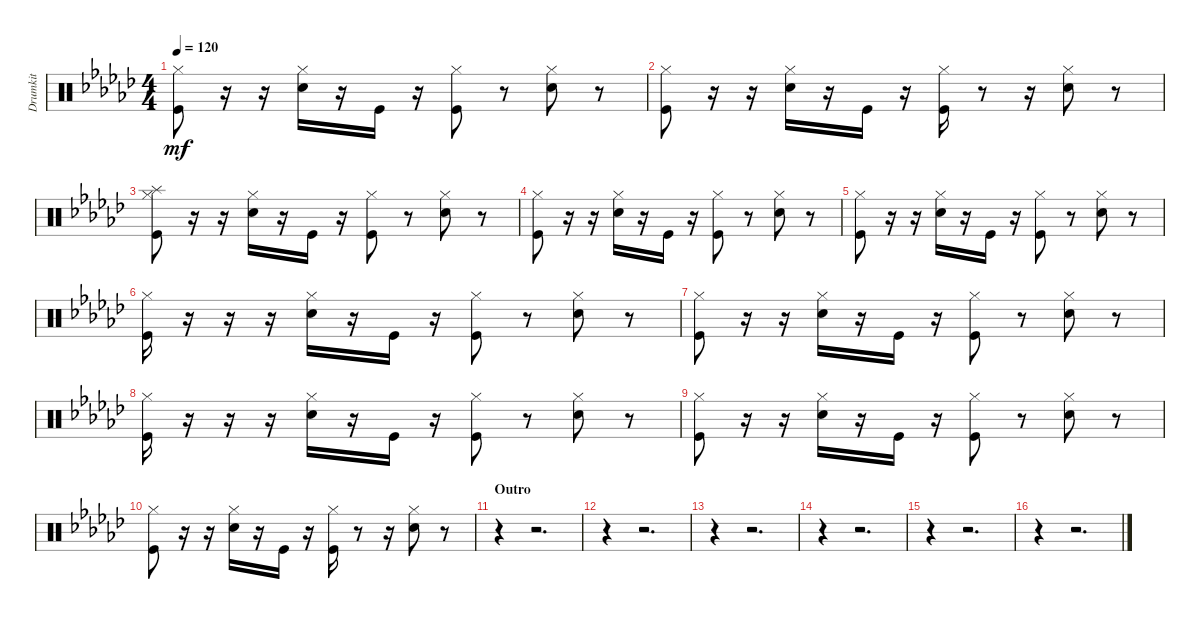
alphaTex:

\track ("Drumkit" "Drumkit") {instrument percussion}
\staff {score}
\articulation defaults
\ts (4 4)
\tempo 120
\clef neutral
\ks ebminor
("Kick (hit)" "Hi-Hat (closed)").8{dy mf} r.16 r.16 ("Snare (hit) 2" "Hi-Hat (closed)").16 r.16 "Kick (hit)".16 r.16 ("Kick (hit)" "Hi-Hat (closed)").8 r.8 ("Snare (hit) 2" "Hi-Hat (closed)").8 r.8 |
("Kick (hit)" "Hi-Hat (closed)").8 r.16 r.16 ("Snare (hit) 2" "Hi-Hat (closed)").16 r.16 "Kick (hit)".16 r.16 ("Kick (hit)" "Hi-Hat (closed)").16 r.8 r.16 ("Snare (hit) 2" "Hi-Hat (closed)").8 r.8 |
("Kick (hit)" "Hi-Hat (closed)" "Splash (hit)").8 r.16 r.16 ("Snare (hit) 2" "Hi-Hat (closed)").16 r.16 "Kick (hit)".16 r.16 ("Kick (hit)" "Hi-Hat (closed)").8 r.8 ("Snare (hit) 2" "Hi-Hat (closed)").8 r.8 |
("Kick (hit)" "Hi-Hat (closed)").8 r.16 r.16 ("Snare (hit) 2" "Hi-Hat (closed)").16 r.16 "Kick (hit)".16 r.16 ("Kick (hit)" "Hi-Hat (closed)").8 r.8 ("Snare (hit) 2" "Hi-Hat (closed)").8 r.8 |
("Kick (hit)" "Hi-Hat (closed)").8 r.16 r.16 ("Snare (hit) 2" "Hi-Hat (closed)").16 r.16 "Kick (hit)".16 r.16 ("Kick (hit)" "Hi-Hat (closed)").8 r.8 ("Snare (hit) 2" "Hi-Hat (closed)").8 r.8 |
("Kick (hit)" "Hi-Hat (closed)").16 r.16 r.16 r.16 ("Snare (hit) 2" "Hi-Hat (closed)").16 r.16 "Kick (hit)".16 r.16 ("Kick (hit)" "Hi-Hat (closed)").8 r.8 ("Snare (hit) 2" "Hi-Hat (closed)").8 r.8 |
("Kick (hit)" "Hi-Hat (closed)").8 r.16 r.16 ("Snare (hit) 2" "Hi-Hat (closed)").16 r.16 "Kick (hit)".16 r.16 ("Kick (hit)" "Hi-Hat (closed)").8 r.8 ("Snare (hit) 2" "Hi-Hat (closed)").8 r.8 |
("Kick (hit)" "Hi-Hat (closed)").16 r.16 r.16 r.16 ("Snare (hit) 2" "Hi-Hat (closed)").16 r.16 "Kick (hit)".16 r.16 ("Kick (hit)" "Hi-Hat (closed)").8 r.8 ("Snare (hit) 2" "Hi-Hat (closed)").8 r.8 |
("Kick (hit)" "Hi-Hat (closed)").8 r.16 r.16 ("Snare (hit) 2" "Hi-Hat (closed)").16 r.16 "Kick (hit)".16 r.16 ("Kick (hit)" "Hi-Hat (closed)").8 r.8 ("Snare (hit) 2" "Hi-Hat (closed)").8 r.8 |
("Kick (hit)" "Hi-Hat (closed)").8 r.16 r.16 ("Snare (hit) 2" "Hi-Hat (closed)").16 r.16 "Kick (hit)".16 r.16 ("Kick (hit)" "Hi-Hat (closed)").16 r.8 r.16 ("Snare (hit) 2" "Hi-Hat (closed)").8 r.8 |
\section ("" "Outro")
r.4 r.2{d} |
r.4 r.2{d} |
r.4 r.2{d} |
r.4 r.2{d} |
r.4 r.2{d} |
r.4 r.2{d}
